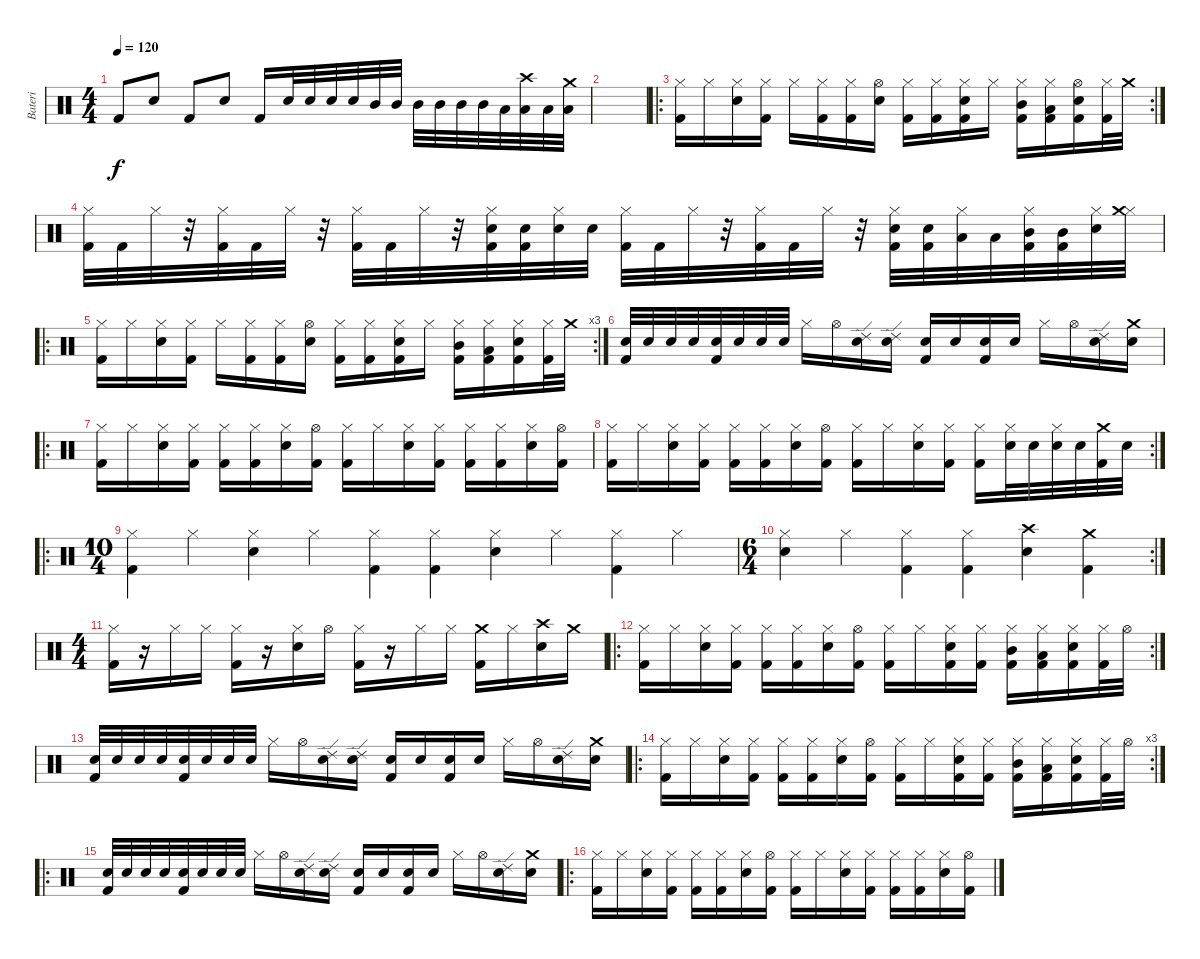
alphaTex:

\track ("Bateri" "Bateri") {instrument percussion}
\staff {score}
\articulation defaults
\ts (4 4)
\tempo 120
\clef neutral
\ks c "Kick (hit) 2".8{dy f} "Snare (hit) 2".8 "Kick (hit) 2".8 "Snare (hit) 2".8 "Kick (hit) 2".16 "Snare (hit) 2".32 "Snare (hit) 2".32 "Snare (hit) 2".32 "Snare (hit) 2".32 "Mid Tom (hit)".32 "Mid Tom (hit)".32 "Mid Tom (hit)".32 "Mid Tom (hit)".32 "Mid Tom (hit)".32 "Mid Tom (hit)".32 "Low Tom (hit)".32
("Crash high (hit)" "Low Tom (hit)").32 "Low Tom (hit)".32 ("Crash medium (hit)" "Low Tom (hit)").32 |
|
\ro
\rc 2
("Hi-Hat (closed)" "Kick (hit) 2").16 "Hi-Hat (closed)".16 ("Hi-Hat (closed)" "Electric Snare (hit)").16 ("Hi-Hat (closed)" "Kick (hit) 2").16 "Hi-Hat (closed)".16 ("Hi-Hat (closed)" "Kick (hit) 2").16 ("Hi-Hat (closed)" "Kick (hit) 2").16 ("Hi-Hat (open)" "Electric Snare (hit)").16 ("Hi-Hat (closed)" "Kick (hit) 2").16 ("Hi-Hat (closed)" "Kick (hit) 2").16 ("Hi-Hat (closed)" "Kick (hit) 2" "Electric Snare (hit)").16 "Hi-Hat (closed)".16 ("Hi-Hat (closed)" "Mid Tom (hit)" "Kick (hit) 2").16 ("Hi-Hat (closed)" "Low Tom (hit)" "Kick (hit) 2").16 ("Hi-Hat (open)" "Electric Snare (hit)" "Kick (hit) 2").16 ("Hi-Hat (closed)" "Kick (hit) 2").32 "Crash medium (hit)".32 |
("Hi-Hat (closed)" "Kick (hit) 2").32 "Kick (hit) 2".32 "Hi-Hat (closed)".32 r.32 ("Hi-Hat (closed)" "Kick (hit) 2").32 "Kick (hit) 2".32 "Hi-Hat (closed)".32 r.32 ("Hi-Hat (closed)" "Kick (hit) 2").32 "Kick (hit) 2".32 "Hi-Hat (closed)".32 r.32 ("Hi-Hat (closed)" "Kick (hit) 2" "Electric Snare (hit)").32 ("Kick (hit) 2" "Electric Snare (hit)").32 ("Hi-Hat (closed)" "Electric Snare (hit)").32 "Electric Snare (hit)".32 ("Hi-Hat (closed)" "Kick (hit) 2").32 "Kick (hit) 2".32 "Hi-Hat (closed)".32 r.32 ("Hi-Hat (closed)" "Kick (hit) 2").32 "Kick (hit) 2".32 "Hi-Hat (closed)".32 r.32 ("Hi-Hat (closed)" "Kick (hit) 2" "Electric Snare (hit)").32 ("Kick (hit) 2" "Electric Snare (hit)").32 ("Hi-Hat (closed)" "Low Tom (hit)").32 "Low Tom (hit)".32 ("Hi-Hat (closed)" "Kick (hit) 2" "Mid Tom (hit)").32 ("Kick (hit) 2" "Mid Tom (hit)").32 ("Hi-Hat (closed)" "Electric Snare (hit)").32 ("Hi-Hat (closed)" "Crash medium (hit)").32 |
\ro
\rc 3
("Hi-Hat (closed)" "Kick (hit) 2").16 "Hi-Hat (closed)".16 ("Hi-Hat (closed)" "Electric Snare (hit)").16 ("Hi-Hat (closed)" "Kick (hit) 2").16 "Hi-Hat (closed)".16 ("Hi-Hat (closed)" "Kick (hit) 2").16 ("Hi-Hat (closed)" "Kick (hit) 2").16 ("Hi-Hat (open)" "Electric Snare (hit)").16 ("Hi-Hat (closed)" "Kick (hit) 2").16 ("Hi-Hat (closed)" "Kick (hit) 2").16 ("Hi-Hat (closed)" "Kick (hit) 2" "Electric Snare (hit)").16 "Hi-Hat (closed)".16 ("Hi-Hat (closed)" "Mid Tom (hit)" "Kick (hit) 2").16 ("Hi-Hat (closed)" "Low Tom (hit)" "Kick (hit) 2").16 ("Hi-Hat (closed)" "Electric Snare (hit)" "Kick (hit) 2").16 ("Hi-Hat (closed)" "Kick (hit) 2").32 "Crash medium (hit)".32 |
("Electric Snare (hit)" "Kick (hit) 2").32 "Electric Snare (hit)".32 "Electric Snare (hit)".32 "Electric Snare (hit)".32 ("Electric Snare (hit)" "Kick (hit) 2").32 "Electric Snare (hit)".32 "Electric Snare (hit)".32 "Electric Snare (hit)".32 "Hi-Hat (closed)".16 "Hi-Hat (open)".16 ("Ride (edge) 2" "Electric Snare (hit)").16 ("Ride (edge) 2" "Electric Snare (hit)").16 ("Electric Snare (hit)" "Kick (hit) 2").16 "Electric Snare (hit)".16 ("Electric Snare (hit)" "Kick (hit) 2").16 "Electric Snare (hit)".16 "Hi-Hat (closed)".16 "Hi-Hat (open)".16 ("Ride (edge) 2" "Electric Snare (hit)").16 ("Crash medium (hit)" "Electric Snare (hit)").16 |
\ro
("Hi-Hat (closed)" "Kick (hit) 2").16 "Hi-Hat (closed)".16 ("Hi-Hat (closed)" "Electric Snare (hit)").16 ("Hi-Hat (closed)" "Kick (hit) 2").16 ("Hi-Hat (closed)" "Kick (hit) 2").16 ("Hi-Hat (closed)" "Kick (hit) 2").16 ("Hi-Hat (closed)" "Electric Snare (hit)").16 ("Hi-Hat (open)" "Kick (hit) 2").16 ("Hi-Hat (closed)" "Kick (hit) 2").16 "Hi-Hat (closed)".16 ("Hi-Hat (closed)" "Electric Snare (hit)").16 ("Hi-Hat (closed)" "Kick (hit) 2").16 ("Hi-Hat (closed)" "Kick (hit) 2").16 ("Hi-Hat (closed)" "Kick (hit) 2").16 ("Hi-Hat (closed)" "Electric Snare (hit)").16 ("Hi-Hat (open)" "Kick (hit) 2").16 |
\rc 2
("Hi-Hat (closed)" "Kick (hit) 2").16 "Hi-Hat (closed)".16 ("Hi-Hat (closed)" "Electric Snare (hit)").16 ("Hi-Hat (closed)" "Kick (hit) 2").16 ("Hi-Hat (closed)" "Kick (hit) 2").16 ("Hi-Hat (closed)" "Kick (hit) 2").16 ("Hi-Hat (closed)" "Electric Snare (hit)").16 ("Hi-Hat (open)" "Kick (hit) 2").16 ("Hi-Hat (closed)" "Kick (hit) 2").16 "Hi-Hat (closed)".16 ("Hi-Hat (closed)" "Electric Snare (hit)").16 ("Hi-Hat (closed)" "Kick (hit) 2").16 ("Hi-Hat (closed)" "Kick (hit) 2").16 ("Hi-Hat (closed)" "Electric Snare (hit)").32 "Electric Snare (hit)".32 ("Hi-Hat (closed)" "Electric Snare (hit)").32 "Electric Snare (hit)".32 ("Crash medium (hit)" "Kick (hit) 2").32 "Electric Snare (hit)".32 |
\ro
\ts (10 4)
("Hi-Hat (closed)" "Kick (hit) 2").4 "Hi-Hat (closed)".4 ("Hi-Hat (closed)" "Electric Snare (hit)").4 "Hi-Hat (closed)".4 ("Hi-Hat (closed)" "Kick (hit) 2").4 ("Hi-Hat (closed)" "Kick (hit) 2").4 ("Hi-Hat (closed)" "Electric Snare (hit)").4 "Hi-Hat (closed)".4 ("Hi-Hat (closed)" "Kick (hit) 2").4 "Hi-Hat (closed)".4 |
\rc 2
\ts (6 4)
("Hi-Hat (closed)" "Electric Snare (hit)").4 "Hi-Hat (closed)".4 ("Hi-Hat (closed)" "Kick (hit) 2").4 ("Hi-Hat (closed)" "Kick (hit) 2").4 ("Crash high (hit)" "Electric Snare (hit)").4 ("Crash medium (hit)" "Kick (hit) 2").4 |
\ts (4 4)
("Hi-Hat (closed)" "Kick (hit) 2").16 r.16 "Hi-Hat (closed)".16 "Hi-Hat (closed)".16 ("Hi-Hat (closed)" "Kick (hit) 2").16 r.16 ("Hi-Hat (closed)" "Electric Snare (hit)").16 "Hi-Hat (open)".16 ("Hi-Hat (closed)" "Kick (hit) 2").16 r.16 "Hi-Hat (closed)".16 "Hi-Hat (closed)".16 ("Crash medium (hit)" "Kick (hit) 2").16 "Hi-Hat (closed)".16 ("Crash high (hit)" "Electric Snare (hit)").16 "Crash medium (hit)".16 |
\ro
\rc 2
("Hi-Hat (closed)" "Kick (hit) 2").16 "Hi-Hat (closed)".16 ("Hi-Hat (closed)" "Electric Snare (hit)").16 ("Hi-Hat (closed)" "Kick (hit) 2").16 ("Hi-Hat (closed)" "Kick (hit) 2").16 ("Hi-Hat (closed)" "Kick (hit) 2").16 ("Hi-Hat (closed)" "Electric Snare (hit)").16 ("Hi-Hat (open)" "Kick (hit) 2").16 ("Hi-Hat (closed)" "Kick (hit) 2").16 "Hi-Hat (closed)".16 ("Hi-Hat (closed)" "Kick (hit) 2" "Electric Snare (hit)").16 ("Hi-Hat (closed)" "Kick (hit) 2").16 ("Hi-Hat (closed)" "Mid Tom (hit)" "Kick (hit) 2").16 ("Hi-Hat (closed)" "Low Tom (hit)" "Kick (hit) 2").16 ("Hi-Hat (closed)" "Electric Snare (hit)" "Kick (hit) 2").16 ("Hi-Hat (closed)" "Kick (hit) 2").32 "Hi-Hat (open)".32 |
("Electric Snare (hit)" "Kick (hit) 2").32 "Electric Snare (hit)".32 "Electric Snare (hit)".32 "Electric Snare (hit)".32 ("Electric Snare (hit)" "Kick (hit) 2").32 "Electric Snare (hit)".32 "Electric Snare (hit)".32 "Electric Snare (hit)".32 "Hi-Hat (closed)".16 "Hi-Hat (open)".16 ("Ride (edge) 2" "Electric Snare (hit)").16 ("Ride (edge) 2" "Electric Snare (hit)").16 ("Electric Snare (hit)" "Kick (hit) 2").16 "Electric Snare (hit)".16 ("Electric Snare (hit)" "Kick (hit) 2").16 "Electric Snare (hit)".16 "Hi-Hat (closed)".16 "Hi-Hat (open)".16 ("Ride (edge) 2" "Electric Snare (hit)").16 ("Crash medium (hit)" "Electric Snare (hit)").16 |
\ro
\rc 3
("Hi-Hat (closed)" "Kick (hit) 2").16 "Hi-Hat (closed)".16 ("Hi-Hat (closed)" "Electric Snare (hit)").16 ("Hi-Hat (closed)" "Kick (hit) 2").16 ("Hi-Hat (closed)" "Kick (hit) 2").16 ("Hi-Hat (closed)" "Kick (hit) 2").16 ("Hi-Hat (closed)" "Electric Snare (hit)").16 ("Hi-Hat (open)" "Kick (hit) 2").16 ("Hi-Hat (closed)" "Kick (hit) 2").16 "Hi-Hat (closed)".16 ("Hi-Hat (closed)" "Kick (hit) 2" "Electric Snare (hit)").16 ("Hi-Hat (closed)" "Kick (hit) 2").16 ("Hi-Hat (closed)" "Mid Tom (hit)" "Kick (hit) 2").16 ("Hi-Hat (closed)" "Low Tom (hit)" "Kick (hit) 2").16 ("Hi-Hat (closed)" "Electric Snare (hit)" "Kick (hit) 2").16 ("Hi-Hat (closed)" "Kick (hit) 2").32 "Hi-Hat (open)".32 |
\ro
("Electric Snare (hit)" "Kick (hit) 2").32 "Electric Snare (hit)".32 "Electric Snare (hit)".32 "Electric Snare (hit)".32 ("Electric Snare (hit)" "Kick (hit) 2").32 "Electric Snare (hit)".32 "Electric Snare (hit)".32 "Electric Snare (hit)".32 "Hi-Hat (closed)".16 "Hi-Hat (open)".16 ("Ride (edge) 2" "Electric Snare (hit)").16 ("Ride (edge) 2" "Electric Snare (hit)").16 ("Electric Snare (hit)" "Kick (hit) 2").16 "Electric Snare (hit)".16 ("Electric Snare (hit)" "Kick (hit) 2").16 "Electric Snare (hit)".16 "Hi-Hat (closed)".16 "Hi-Hat (open)".16 ("Ride (edge) 2" "Electric Snare (hit)").16 ("Crash medium (hit)" "Electric Snare (hit)").16 |
\ro
("Hi-Hat (closed)" "Kick (hit) 2").16 "Hi-Hat (closed)".16 ("Hi-Hat (closed)" "Electric Snare (hit)").16 ("Hi-Hat (closed)" "Kick (hit) 2").16 ("Hi-Hat (closed)" "Kick (hit) 2").16 ("Hi-Hat (closed)" "Kick (hit) 2").16 ("Hi-Hat (closed)" "Electric Snare (hit)").16 ("Hi-Hat (open)" "Kick (hit) 2").16 ("Hi-Hat (closed)" "Kick (hit) 2").16 "Hi-Hat (closed)".16 ("Hi-Hat (closed)" "Electric Snare (hit)").16 ("Hi-Hat (closed)" "Kick (hit) 2").16 ("Hi-Hat (closed)" "Kick (hit) 2").16 ("Hi-Hat (closed)" "Kick (hit) 2").16 ("Hi-Hat (closed)" "Electric Snare (hit)").16 ("Hi-Hat (open)" "Kick (hit) 2").16
